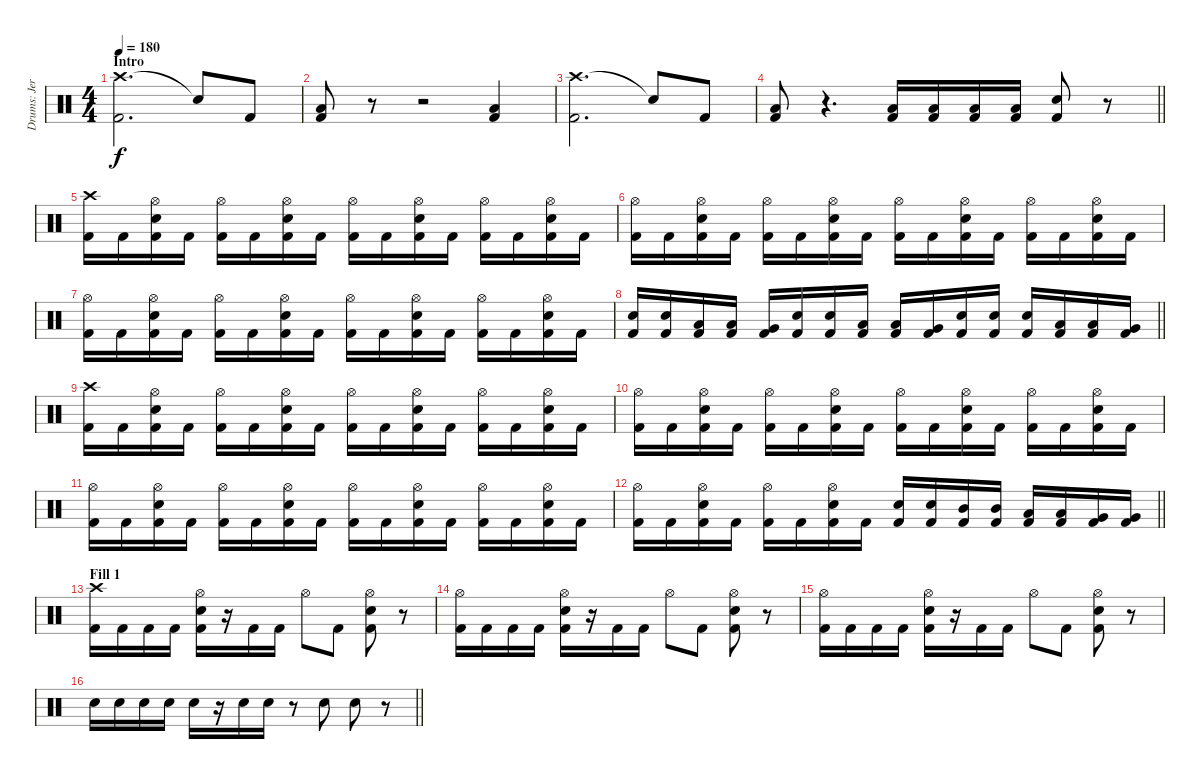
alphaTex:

\track ("Drums: Jere Luokkamäki" "Drums: Jer") {instrument percussion}
\staff {score}
\articulation defaults
\ts (4 4)
\section ("" "Intro")
\tempo 180
\clef neutral
\ks aminor
("Crash high (hit)" "Kick (hit) 2").2{d dy f} "Snare (hit)"{t}.8 "Kick (hit) 2".8 |
("Low Tom (hit)" "Kick (hit) 2").8 r.8 r.2 ("Low Tom (hit)" "Kick (hit) 2").4 |
("Crash high (hit)" "Kick (hit) 2").2{d} "Snare (hit)"{t}.8 "Kick (hit) 2".8 |
\barLineRight lightlight
("Low Tom (hit)" "Kick (hit) 2").8 r.4{d} ("Low Tom (hit)" "Kick (hit) 2").16 ("Low Tom (hit)" "Kick (hit) 2").16 ("Low Tom (hit)" "Kick (hit) 2").16 ("Low Tom (hit)" "Kick (hit) 2").16 ("Electric Snare (hit)" "Kick (hit) 2").8 r.8 |
("Crash high (hit)" "Kick (hit) 2").16 "Kick (hit) 2".16 ("Hi-Hat (open)" "Electric Snare (hit)" "Kick (hit) 2").16 "Kick (hit) 2".16 ("Hi-Hat (open)" "Kick (hit) 2").16 "Kick (hit) 2".16 ("Hi-Hat (open)" "Electric Snare (hit)" "Kick (hit) 2").16 "Kick (hit) 2".16 ("Hi-Hat (open)" "Kick (hit) 2").16 "Kick (hit) 2".16 ("Hi-Hat (open)" "Electric Snare (hit)" "Kick (hit) 2").16 "Kick (hit) 2".16 ("Hi-Hat (open)" "Kick (hit) 2").16 "Kick (hit) 2".16 ("Hi-Hat (open)" "Electric Snare (hit)" "Kick (hit) 2").16 "Kick (hit) 2".16 |
("Hi-Hat (open)" "Kick (hit) 2").16 "Kick (hit) 2".16 ("Hi-Hat (open)" "Electric Snare (hit)" "Kick (hit) 2").16 "Kick (hit) 2".16 ("Hi-Hat (open)" "Kick (hit) 2").16 "Kick (hit) 2".16 ("Hi-Hat (open)" "Electric Snare (hit)" "Kick (hit) 2").16 "Kick (hit) 2".16 ("Hi-Hat (open)" "Kick (hit) 2").16 "Kick (hit) 2".16 ("Hi-Hat (open)" "Electric Snare (hit)" "Kick (hit) 2").16 "Kick (hit) 2".16 ("Hi-Hat (open)" "Kick (hit) 2").16 "Kick (hit) 2".16 ("Hi-Hat (open)" "Electric Snare (hit)" "Kick (hit) 2").16 "Kick (hit) 2".16 |
("Hi-Hat (open)" "Kick (hit) 2").16 "Kick (hit) 2".16 ("Hi-Hat (open)" "Electric Snare (hit)" "Kick (hit) 2").16 "Kick (hit) 2".16 ("Hi-Hat (open)" "Kick (hit) 2").16 "Kick (hit) 2".16 ("Hi-Hat (open)" "Electric Snare (hit)" "Kick (hit) 2").16 "Kick (hit) 2".16 ("Hi-Hat (open)" "Kick (hit) 2").16 "Kick (hit) 2".16 ("Hi-Hat (open)" "Electric Snare (hit)" "Kick (hit) 2").16 "Kick (hit) 2".16 ("Hi-Hat (open)" "Kick (hit) 2").16 "Kick (hit) 2".16 ("Hi-Hat (open)" "Electric Snare (hit)" "Kick (hit) 2").16 "Kick (hit) 2".16 |
\barLineRight lightlight
("Electric Snare (hit)" "Kick (hit) 2").16 ("Electric Snare (hit)" "Kick (hit) 2").16 ("Low Tom (hit)" "Kick (hit) 2").16 ("Low Tom (hit)" "Kick (hit) 2").16 ("Very Low Tom (hit)" "Kick (hit) 2").16 ("Electric Snare (hit)" "Kick (hit) 2").16 ("Electric Snare (hit)" "Kick (hit) 2").16 ("Low Tom (hit)" "Kick (hit) 2").16 ("Low Tom (hit)" "Kick (hit) 2").16 ("Very Low Tom (hit)" "Kick (hit) 2").16 ("Electric Snare (hit)" "Kick (hit) 2").16 ("Electric Snare (hit)" "Kick (hit) 2").16 ("Electric Snare (hit)" "Kick (hit) 2").16 ("Low Tom (hit)" "Kick (hit) 2").16 ("Low Tom (hit)" "Kick (hit) 2").16 ("Very Low Tom (hit)" "Kick (hit) 2").16 |
("Crash high (hit)" "Kick (hit) 2").16 "Kick (hit) 2".16 ("Hi-Hat (open)" "Electric Snare (hit)" "Kick (hit) 2").16 "Kick (hit) 2".16 ("Hi-Hat (open)" "Kick (hit) 2").16 "Kick (hit) 2".16 ("Hi-Hat (open)" "Electric Snare (hit)" "Kick (hit) 2").16 "Kick (hit) 2".16 ("Hi-Hat (open)" "Kick (hit) 2").16 "Kick (hit) 2".16 ("Hi-Hat (open)" "Electric Snare (hit)" "Kick (hit) 2").16 "Kick (hit) 2".16 ("Hi-Hat (open)" "Kick (hit) 2").16 "Kick (hit) 2".16 ("Hi-Hat (open)" "Electric Snare (hit)" "Kick (hit) 2").16 "Kick (hit) 2".16 |
("Hi-Hat (open)" "Kick (hit) 2").16 "Kick (hit) 2".16 ("Hi-Hat (open)" "Electric Snare (hit)" "Kick (hit) 2").16 "Kick (hit) 2".16 ("Hi-Hat (open)" "Kick (hit) 2").16 "Kick (hit) 2".16 ("Hi-Hat (open)" "Electric Snare (hit)" "Kick (hit) 2").16 "Kick (hit) 2".16 ("Hi-Hat (open)" "Kick (hit) 2").16 "Kick (hit) 2".16 ("Hi-Hat (open)" "Electric Snare (hit)" "Kick (hit) 2").16 "Kick (hit) 2".16 ("Hi-Hat (open)" "Kick (hit) 2").16 "Kick (hit) 2".16 ("Hi-Hat (open)" "Electric Snare (hit)" "Kick (hit) 2").16 "Kick (hit) 2".16 |
("Hi-Hat (open)" "Kick (hit) 2").16 "Kick (hit) 2".16 ("Hi-Hat (open)" "Electric Snare (hit)" "Kick (hit) 2").16 "Kick (hit) 2".16 ("Hi-Hat (open)" "Kick (hit) 2").16 "Kick (hit) 2".16 ("Hi-Hat (open)" "Electric Snare (hit)" "Kick (hit) 2").16 "Kick (hit) 2".16 ("Hi-Hat (open)" "Kick (hit) 2").16 "Kick (hit) 2".16 ("Hi-Hat (open)" "Electric Snare (hit)" "Kick (hit) 2").16 "Kick (hit) 2".16 ("Hi-Hat (open)" "Kick (hit) 2").16 "Kick (hit) 2".16 ("Hi-Hat (open)" "Electric Snare (hit)" "Kick (hit) 2").16 "Kick (hit) 2".16 |
\barLineRight lightlight
("Hi-Hat (open)" "Kick (hit) 2").16 "Kick (hit) 2".16 ("Hi-Hat (open)" "Electric Snare (hit)" "Kick (hit) 2").16 "Kick (hit) 2".16 ("Hi-Hat (open)" "Kick (hit) 2").16 "Kick (hit) 2".16 ("Hi-Hat (open)" "Electric Snare (hit)" "Kick (hit) 2").16 "Kick (hit) 2".16 ("Electric Snare (hit)" "Kick (hit) 2").16 ("Electric Snare (hit)" "Kick (hit) 2").16 ("Mid Tom (hit)" "Kick (hit) 2").16 ("Mid Tom (hit)" "Kick (hit) 2").16 ("Low Tom (hit)" "Kick (hit) 2").16 ("Low Tom (hit)" "Kick (hit) 2").16 ("Very Low Tom (hit)" "Kick (hit) 2").16 ("Very Low Tom (hit)" "Kick (hit) 2").16 |
\section ("" "Fill 1")
("Crash high (hit)" "Kick (hit) 2").16 "Kick (hit) 2".16 "Kick (hit) 2".16 "Kick (hit) 2".16 ("Hi-Hat (open)" "Electric Snare (hit)" "Kick (hit) 2").16 r.16 "Kick (hit) 2".16 "Kick (hit) 2".16 "Hi-Hat (open)".8 "Kick (hit) 2".8 ("Hi-Hat (open)" "Electric Snare (hit)" "Kick (hit) 2").8 r.8 |
("Hi-Hat (open)" "Kick (hit) 2").16 "Kick (hit) 2".16 "Kick (hit) 2".16 "Kick (hit) 2".16 ("Hi-Hat (open)" "Electric Snare (hit)" "Kick (hit) 2").16 r.16 "Kick (hit) 2".16 "Kick (hit) 2".16 "Hi-Hat (open)".8 "Kick (hit) 2".8 ("Hi-Hat (open)" "Electric Snare (hit)" "Kick (hit) 2").8 r.8 |
("Hi-Hat (open)" "Kick (hit) 2").16 "Kick (hit) 2".16 "Kick (hit) 2".16 "Kick (hit) 2".16 ("Hi-Hat (open)" "Electric Snare (hit)" "Kick (hit) 2").16 r.16 "Kick (hit) 2".16 "Kick (hit) 2".16 "Hi-Hat (open)".8 "Kick (hit) 2".8 ("Hi-Hat (open)" "Electric Snare (hit)" "Kick (hit) 2").8 r.8 |
\barLineRight lightlight "Electric Snare (hit)".16 "Electric Snare (hit)".16 "Electric Snare (hit)".16 "Electric Snare (hit)".16 "Electric Snare (hit)".16
r.16 "Electric Snare (hit)".16 "Electric Snare (hit)".16 r.8 "Electric Snare (hit)".8 "Electric Snare (hit)".8 r.8
